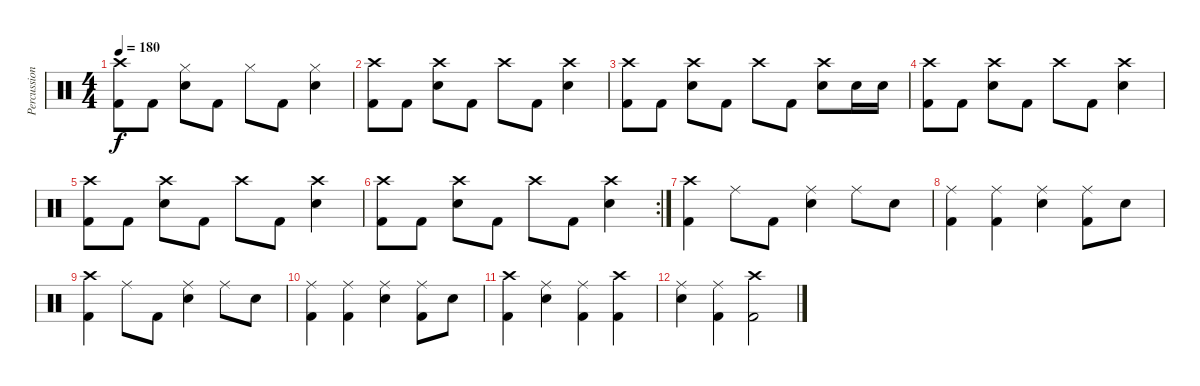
\track ("Percussions" "Percussion") {instrument percussion}
\staff {score}
\articulation defaults
\ts (4 4)
\tempo 180
\clef neutral
\ks c
("Crash high (hit)" "Kick (hit) 2").8{dy f} "Kick (hit) 2".8 ("Hi-Hat (closed)" "Snare (hit) 2").8 "Kick (hit) 2".8 "Hi-Hat (closed)".8 "Kick (hit) 2".8 ("Hi-Hat (closed)" "Snare (hit) 2").4 |
("Crash high (hit)" "Kick (hit) 2").8 "Kick (hit) 2".8 ("Crash high (hit)" "Snare (hit) 2").8 "Kick (hit) 2".8 "Crash high (hit)".8 "Kick (hit) 2".8 ("Crash high (hit)" "Snare (hit) 2").4 |
("Crash high (hit)" "Kick (hit) 2").8 "Kick (hit) 2".8 ("Crash high (hit)" "Snare (hit) 2").8 "Kick (hit) 2".8 "Crash high (hit)".8 "Kick (hit) 2".8 ("Crash high (hit)" "Snare (hit) 2").8 "Snare (hit) 2".16 "Snare (hit) 2".16 |
("Crash high (hit)" "Kick (hit) 2").8 "Kick (hit) 2".8 ("Crash high (hit)" "Snare (hit) 2").8 "Kick (hit) 2".8 "Crash high (hit)".8 "Kick (hit) 2".8 ("Crash high (hit)" "Snare (hit) 2").4 |
("Crash high (hit)" "Kick (hit) 2").8 "Kick (hit) 2".8 ("Crash high (hit)" "Snare (hit) 2").8 "Kick (hit) 2".8 "Crash high (hit)".8 "Kick (hit) 2".8 ("Crash high (hit)" "Snare (hit) 2").4 |
\rc 2
("Crash high (hit)" "Kick (hit) 2").8 "Kick (hit) 2".8 ("Crash high (hit)" "Snare (hit) 2").8 "Kick (hit) 2".8 "Crash high (hit)".8 "Kick (hit) 2".8 ("Crash high (hit)" "Snare (hit) 2").4 |
("Crash high (hit)" "Kick (hit) 2").4 "Ride (middle)".8 "Kick (hit) 2".8 ("Ride (middle)" "Snare (hit) 2").4 "Ride (middle)".8 "Snare (hit) 2".8 |
("Ride (middle)" "Kick (hit) 2").4 ("Ride (middle)" "Kick (hit) 2").4 ("Ride (middle)" "Snare (hit) 2").4 ("Ride (middle)" "Kick (hit) 2").8 "Snare (hit) 2".8 |
("Crash high (hit)" "Kick (hit) 2").4 "Ride (middle)".8 "Kick (hit) 2".8 ("Ride (middle)" "Snare (hit) 2").4 "Ride (middle)".8 "Snare (hit) 2".8 |
("Ride (middle)" "Kick (hit) 2").4 ("Ride (middle)" "Kick (hit) 2").4 ("Ride (middle)" "Snare (hit) 2").4 ("Ride (middle)" "Kick (hit) 2").8 "Snare (hit) 2".8 |
("Crash high (hit)" "Kick (hit) 2").4 ("Ride (middle)" "Snare (hit) 2").4 ("Ride (middle)" "Kick (hit) 2").4 ("Crash high (hit)" "Kick (hit) 2").4 |
("Ride (middle)" "Snare (hit) 2").4 ("Ride (middle)" "Kick (hit) 2").4 ("Crash high (hit)" "Kick (hit) 2").2
